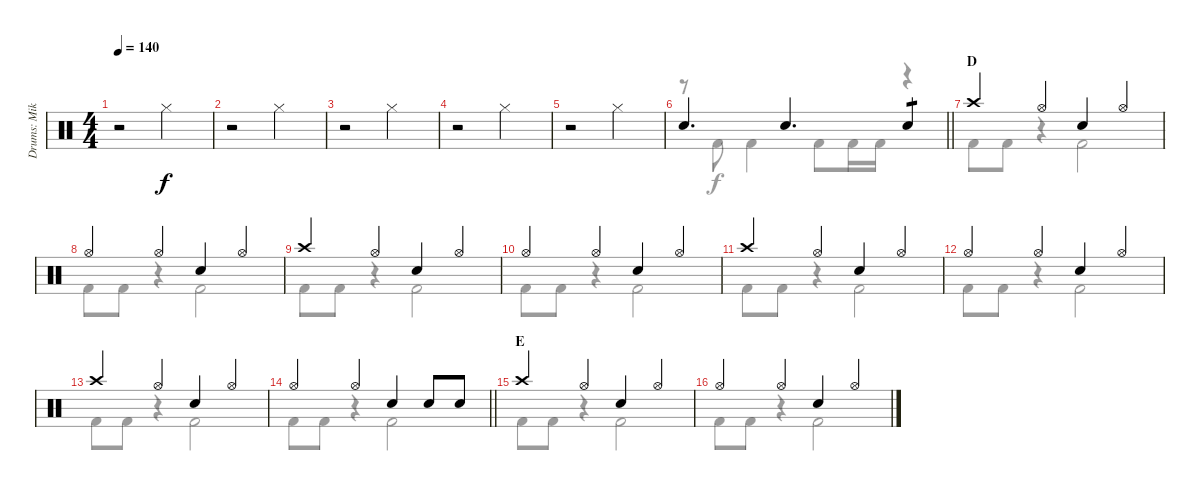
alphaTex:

\track ("Drums: Mike" "Drums: Mik") {instrument percussion}
\staff {score}
\articulation defaults
\voice
\ts (4 4)
\tempo 140
\clef neutral
\ks c
r.2{dy f} "Hi-Hat (closed)".2 |
r.2 "Hi-Hat (closed)".2 |
r.2 "Hi-Hat (closed)".2 |
r.2 "Hi-Hat (closed)".2 |
r.2 "Hi-Hat (closed)".2 |
\barLineRight lightlight "Snare (hit) 2".4{d} "Snare (hit) 2".4{d} "Snare (hit) 2".4{tp 1}
|
\section ("" "D")
"Crash high (hit)".4 "Hi-Hat (open)".4 "Snare (hit) 2".4 "Hi-Hat (open)".4 |
"Hi-Hat (open)".4 "Hi-Hat (open)".4 "Snare (hit) 2".4 "Hi-Hat (open)".4 |
"Crash high (hit)".4 "Hi-Hat (open)".4 "Snare (hit) 2".4 "Hi-Hat (open)".4 |
"Hi-Hat (open)".4 "Hi-Hat (open)".4 "Snare (hit) 2".4 "Hi-Hat (open)".4 |
"Crash high (hit)".4 "Hi-Hat (open)".4 "Snare (hit) 2".4 "Hi-Hat (open)".4 |
"Hi-Hat (open)".4 "Hi-Hat (open)".4 "Snare (hit) 2".4 "Hi-Hat (open)".4 |
"Crash high (hit)".4 "Hi-Hat (open)".4 "Snare (hit) 2".4 "Hi-Hat (open)".4 |
\barLineRight lightlight "Hi-Hat (open)".4 "Hi-Hat (open)".4 "Snare (hit) 2".4 "Snare (hit) 2".8 "Snare (hit) 2".8
|
\section ("" "E")
"Crash high (hit)".4 "Hi-Hat (open)".4 "Snare (hit) 2".4 "Hi-Hat (open)".4 |
"Hi-Hat (open)".4 "Hi-Hat (open)".4 "Snare (hit) 2".4 "Hi-Hat (open)".4
\voice
\clef neutral
\ottava regular
\simile none
\ks c
|
|
|
|
|
\barLineRight lightlight
r.8 "Kick (hit) 2".8 "Kick (hit) 2".4 "Kick (hit) 2".8 "Kick (hit) 2".16 "Kick (hit) 2".16 r.4 |
"Kick (hit) 2".8 "Kick (hit) 2".8 r.4 "Kick (hit) 2".2 |
"Kick (hit) 2".8 "Kick (hit) 2".8 r.4 "Kick (hit) 2".2 |
"Kick (hit) 2".8 "Kick (hit) 2".8 r.4 "Kick (hit) 2".2 |
"Kick (hit) 2".8 "Kick (hit) 2".8 r.4 "Kick (hit) 2".2 |
"Kick (hit) 2".8 "Kick (hit) 2".8 r.4 "Kick (hit) 2".2 |
"Kick (hit) 2".8 "Kick (hit) 2".8 r.4 "Kick (hit) 2".2 |
"Kick (hit) 2".8 "Kick (hit) 2".8 r.4 "Kick (hit) 2".2 |
\barLineRight lightlight "Kick (hit) 2".8 "Kick (hit) 2".8
r.4 "Kick (hit) 2".2 |
"Kick (hit) 2".8 "Kick (hit) 2".8 r.4 "Kick (hit) 2".2 |
"Kick (hit) 2".8 "Kick (hit) 2".8 r.4 "Kick (hit) 2".2
